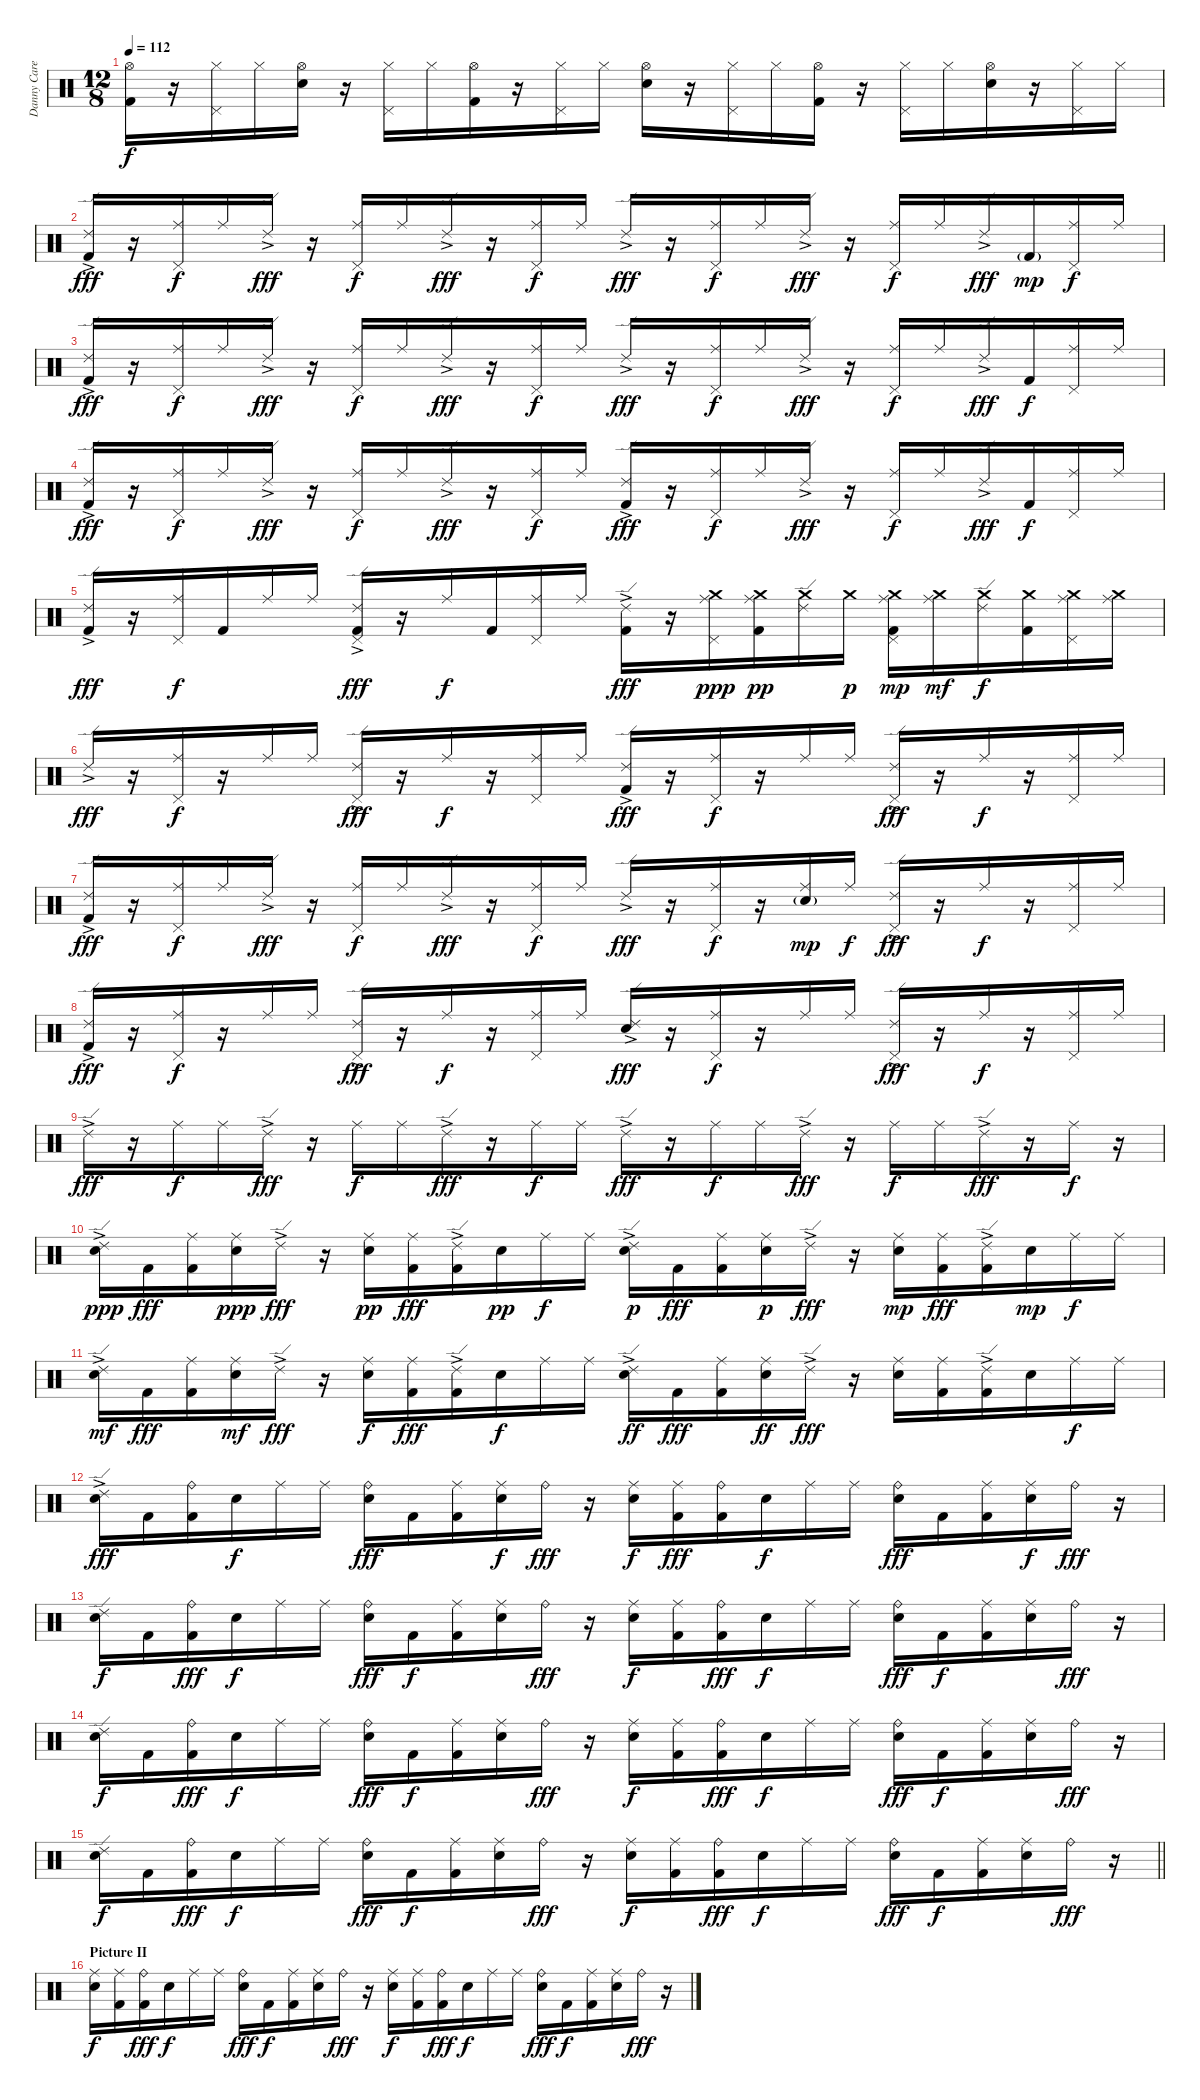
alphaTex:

\track ("Danny Carey" "Danny Care") {instrument percussion}
\staff {score}
\articulation defaults
\ts (12 8)
\tempo 112
\clef neutral
\ks c
("Hi-Hat (open)" "Kick (hit) 2").16{dy f} r.16 ("Hi-Hat (closed)" "Pedal Hi-Hat (hit)").16 "Hi-Hat (closed)".16 ("Hi-Hat (open)" "Electric Snare (hit)").16 r.16 ("Hi-Hat (closed)" "Pedal Hi-Hat (hit)").16 "Hi-Hat (closed)".16 ("Hi-Hat (open)" "Kick (hit) 2").16 r.16 ("Hi-Hat (closed)" "Pedal Hi-Hat (hit)").16 "Hi-Hat (closed)".16 ("Hi-Hat (open)" "Electric Snare (hit)").16 r.16 ("Hi-Hat (closed)" "Pedal Hi-Hat (hit)").16 "Hi-Hat (closed)".16 ("Hi-Hat (open)" "Kick (hit) 2").16 r.16 ("Hi-Hat (closed)" "Pedal Hi-Hat (hit)").16 "Hi-Hat (closed)".16 ("Hi-Hat (open)" "Electric Snare (hit)").16 r.16 ("Hi-Hat (closed)" "Pedal Hi-Hat (hit)").16 "Hi-Hat (closed)".16 |
("Ride (edge) 2"{ac} "Kick (hit) 2").16{dy fff} r.16 ("Ride (middle)" "Pedal Hi-Hat (hit)").16{dy f} "Ride (middle)".16 "Ride (edge) 2"{ac}.16{dy fff} r.16 ("Ride (middle)" "Pedal Hi-Hat (hit)").16{dy f} "Ride (middle)".16 "Ride (edge) 2"{ac}.16{dy fff} r.16 ("Ride (middle)" "Pedal Hi-Hat (hit)").16{dy f} "Ride (middle)".16 "Ride (edge) 2"{ac}.16{dy fff} r.16 ("Ride (middle)" "Pedal Hi-Hat (hit)").16{dy f} "Ride (middle)".16 "Ride (edge) 2"{ac}.16{dy fff} r.16 ("Ride (middle)" "Pedal Hi-Hat (hit)").16{dy f} "Ride (middle)".16 "Ride (edge) 2"{ac}.16{dy fff} "Kick (hit) 2"{g}.16{dy mp} ("Ride (middle)" "Pedal Hi-Hat (hit)").16{dy f} "Ride (middle)".16 |
("Ride (edge) 2"{ac} "Kick (hit) 2").16{dy fff} r.16 ("Ride (middle)" "Pedal Hi-Hat (hit)").16{dy f} "Ride (middle)".16 "Ride (edge) 2"{ac}.16{dy fff} r.16 ("Ride (middle)" "Pedal Hi-Hat (hit)").16{dy f} "Ride (middle)".16 "Ride (edge) 2"{ac}.16{dy fff} r.16 ("Ride (middle)" "Pedal Hi-Hat (hit)").16{dy f} "Ride (middle)".16 "Ride (edge) 2"{ac}.16{dy fff} r.16 ("Ride (middle)" "Pedal Hi-Hat (hit)").16{dy f} "Ride (middle)".16 "Ride (edge) 2"{ac}.16{dy fff} r.16 ("Ride (middle)" "Pedal Hi-Hat (hit)").16{dy f} "Ride (middle)".16 "Ride (edge) 2"{ac}.16{dy fff} "Kick (hit) 2".16{dy f} ("Ride (middle)" "Pedal Hi-Hat (hit)").16 "Ride (middle)".16 |
("Ride (edge) 2"{ac} "Kick (hit) 2").16{dy fff} r.16 ("Ride (middle)" "Pedal Hi-Hat (hit)").16{dy f} "Ride (middle)".16 "Ride (edge) 2"{ac}.16{dy fff} r.16 ("Ride (middle)" "Pedal Hi-Hat (hit)").16{dy f} "Ride (middle)".16 "Ride (edge) 2"{ac}.16{dy fff} r.16 ("Ride (middle)" "Pedal Hi-Hat (hit)").16{dy f} "Ride (middle)".16 ("Ride (edge) 2"{ac} "Kick (hit) 2").16{dy fff} r.16 ("Ride (middle)" "Pedal Hi-Hat (hit)").16{dy f} "Ride (middle)".16 "Ride (edge) 2"{ac}.16{dy fff} r.16 ("Ride (middle)" "Pedal Hi-Hat (hit)").16{dy f} "Ride (middle)".16 "Ride (edge) 2"{ac}.16{dy fff} "Kick (hit) 2".16{dy f} ("Ride (middle)" "Pedal Hi-Hat (hit)").16 "Ride (middle)".16 |
("Ride (edge) 2"{ac} "Kick (hit) 2").16{dy fff} r.16 ("Ride (middle)" "Pedal Hi-Hat (hit)").16{dy f} "Kick (hit) 2".16 "Ride (middle)".16 "Ride (middle)".16 ("Ride (edge) 2"{ac} "Kick (hit) 2" "Pedal Hi-Hat (hit)").16{dy fff} r.16 "Ride (middle)".16{dy f} "Kick (hit) 2".16 ("Ride (middle)" "Pedal Hi-Hat (hit)").16 "Ride (middle)".16 ("Ride (edge) 2"{ac} "Kick (hit) 2").16{dy fff} r.16 ("Crash medium (hit)" "Ride (middle)" "Pedal Hi-Hat (hit)").16{dy ppp} ("Crash medium (hit)" "Ride (middle)" "Kick (hit) 2").16{dy pp} ("Crash medium (hit)" "Ride (edge) 2").16 "Crash medium (hit)".16{dy p} ("Crash medium (hit)" "Ride (middle)" "Kick (hit) 2" "Pedal Hi-Hat (hit)").16{dy mp} ("Crash medium (hit)" "Ride (middle)").16{dy mf} ("Crash medium (hit)" "Ride (edge) 2").16{dy f} ("Crash medium (hit)" "Kick (hit) 2").16 ("Crash medium (hit)" "Ride (middle)" "Pedal Hi-Hat (hit)").16 ("Crash medium (hit)" "Ride (middle)").16 |
"Ride (edge) 2"{ac}.16{dy fff} r.16 ("Ride (middle)" "Pedal Hi-Hat (hit)").16{dy f} r.16 "Ride (middle)".16 "Ride (middle)".16 ("Ride (edge) 2"{ac} "Pedal Hi-Hat (hit)").16{dy fff} r.16 "Ride (middle)".16{dy f} r.16 ("Ride (middle)" "Pedal Hi-Hat (hit)").16 "Ride (middle)".16 ("Ride (edge) 2"{ac} "Kick (hit) 2").16{dy fff} r.16 ("Ride (middle)" "Pedal Hi-Hat (hit)").16{dy f} r.16 "Ride (middle)".16 "Ride (middle)".16 ("Ride (edge) 2"{ac} "Pedal Hi-Hat (hit)").16{dy fff} r.16 "Ride (middle)".16{dy f} r.16 ("Ride (middle)" "Pedal Hi-Hat (hit)").16 "Ride (middle)".16 |
("Ride (edge) 2"{ac} "Kick (hit) 2").16{dy fff} r.16 ("Ride (middle)" "Pedal Hi-Hat (hit)").16{dy f} "Ride (middle)".16 "Ride (edge) 2"{ac}.16{dy fff} r.16 ("Ride (middle)" "Pedal Hi-Hat (hit)").16{dy f} "Ride (middle)".16 "Ride (edge) 2"{ac}.16{dy fff} r.16 ("Ride (middle)" "Pedal Hi-Hat (hit)").16{dy f} "Ride (middle)".16 "Ride (edge) 2"{ac}.16{dy fff} r.16 ("Ride (middle)" "Pedal Hi-Hat (hit)").16{dy f} r.16 ("Ride (middle)" "Electric Snare (hit)"{g}).16{dy mp} "Ride (middle)".16{dy f} ("Ride (edge) 2"{ac} "Pedal Hi-Hat (hit)").16{dy fff} r.16 "Ride (middle)".16{dy f} r.16 ("Ride (middle)" "Pedal Hi-Hat (hit)").16 "Ride (middle)".16 |
("Ride (edge) 2"{ac} "Kick (hit) 2").16{dy fff} r.16 ("Ride (middle)" "Pedal Hi-Hat (hit)").16{dy f} r.16 "Ride (middle)".16 "Ride (middle)".16 ("Ride (edge) 2"{ac} "Pedal Hi-Hat (hit)").16{dy fff} r.16 "Ride (middle)".16{dy f} r.16 ("Ride (middle)" "Pedal Hi-Hat (hit)").16 "Ride (middle)".16 ("Ride (edge) 2"{ac} "Electric Snare (hit)").16{dy fff} r.16 ("Ride (middle)" "Pedal Hi-Hat (hit)").16{dy f} r.16 "Ride (middle)".16 "Ride (middle)".16 ("Ride (edge) 2"{ac} "Pedal Hi-Hat (hit)").16{dy fff} r.16 "Ride (middle)".16{dy f} r.16 ("Ride (middle)" "Pedal Hi-Hat (hit)").16 "Ride (middle)".16 |
"Ride (edge) 2"{ac}.16{dy fff} r.16 "Ride (middle)".16{dy f} "Ride (middle)".16 "Ride (edge) 2"{ac}.16{dy fff} r.16 "Ride (middle)".16{dy f} "Ride (middle)".16 "Ride (edge) 2"{ac}.16{dy fff} r.16 "Ride (middle)".16{dy f} "Ride (middle)".16 "Ride (edge) 2"{ac}.16{dy fff} r.16 "Ride (middle)".16{dy f} "Ride (middle)".16 "Ride (edge) 2"{ac}.16{dy fff} r.16 "Ride (middle)".16{dy f} "Ride (middle)".16 "Ride (edge) 2"{ac}.16{dy fff} r.16 "Ride (middle)".16{dy f} r.16 |
("Ride (edge) 2"{ac} "Electric Snare (hit)").16{dy ppp} "Kick (hit) 2".16{dy fff} ("Ride (middle)" "Kick (hit) 2").16 ("Ride (middle)" "Electric Snare (hit)").16{dy ppp} "Ride (edge) 2"{ac}.16{dy fff} r.16 ("Ride (middle)" "Electric Snare (hit)").16{dy pp} ("Ride (middle)" "Kick (hit) 2").16{dy fff} ("Ride (edge) 2"{ac} "Kick (hit) 2").16 "Electric Snare (hit)".16{dy pp} "Ride (middle)".16{dy f} "Ride (middle)".16 ("Ride (edge) 2"{ac} "Electric Snare (hit)").16{dy p} "Kick (hit) 2".16{dy fff} ("Ride (middle)" "Kick (hit) 2").16 ("Ride (middle)" "Electric Snare (hit)").16{dy p} "Ride (edge) 2"{ac}.16{dy fff} r.16 ("Ride (middle)" "Electric Snare (hit)").16{dy mp} ("Ride (middle)" "Kick (hit) 2").16{dy fff} ("Ride (edge) 2"{ac} "Kick (hit) 2").16 "Electric Snare (hit)".16{dy mp} "Ride (middle)".16{dy f} "Ride (middle)".16 |
("Ride (edge) 2"{ac} "Electric Snare (hit)").16{dy mf} "Kick (hit) 2".16{dy fff} ("Ride (middle)" "Kick (hit) 2").16 ("Ride (middle)" "Electric Snare (hit)").16{dy mf} "Ride (edge) 2"{ac}.16{dy fff} r.16 ("Ride (middle)" "Electric Snare (hit)").16{dy f} ("Ride (middle)" "Kick (hit) 2").16{dy fff} ("Ride (edge) 2"{ac} "Kick (hit) 2").16 "Electric Snare (hit)".16{dy f} "Ride (middle)".16 "Ride (middle)".16 ("Ride (edge) 2"{ac} "Electric Snare (hit)").16{dy ff} "Kick (hit) 2".16{dy fff} ("Ride (middle)" "Kick (hit) 2").16 ("Ride (middle)" "Electric Snare (hit)").16{dy ff} "Ride (edge) 2"{ac}.16{dy fff} r.16 ("Ride (middle)" "Electric Snare (hit)").16 ("Ride (middle)" "Kick (hit) 2").16 ("Ride (edge) 2"{ac} "Kick (hit) 2").16 "Electric Snare (hit)".16 "Ride (middle)".16{dy f} "Ride (middle)".16 |
("Ride (edge) 2"{ac} "Electric Snare (hit)").16{dy fff} "Kick (hit) 2".16 ("Ride (bell)" "Kick (hit) 2").16 "Electric Snare (hit)".16{dy f} "Ride (middle)".16 "Ride (middle)".16 ("Ride (bell)" "Electric Snare (hit)").16{dy fff} "Kick (hit) 2".16 ("Ride (middle)" "Kick (hit) 2").16 ("Ride (middle)" "Electric Snare (hit)").16{dy f} "Ride (bell)".16{dy fff} r.16 ("Ride (middle)" "Electric Snare (hit)").16{dy f} ("Ride (middle)" "Kick (hit) 2").16{dy fff} ("Ride (bell)" "Kick (hit) 2").16 "Electric Snare (hit)".16{dy f} "Ride (middle)".16 "Ride (middle)".16 ("Ride (bell)" "Electric Snare (hit)").16{dy fff} "Kick (hit) 2".16 ("Ride (middle)" "Kick (hit) 2").16 ("Ride (middle)" "Electric Snare (hit)").16{dy f} "Ride (bell)".16{dy fff} r.16 |
("Ride (edge) 2" "Electric Snare (hit)").16{dy f} "Kick (hit) 2".16 ("Ride (bell)" "Kick (hit) 2").16{dy fff} "Electric Snare (hit)".16{dy f} "Ride (middle)".16 "Ride (middle)".16 ("Ride (bell)" "Electric Snare (hit)").16{dy fff} "Kick (hit) 2".16{dy f} ("Ride (middle)" "Kick (hit) 2").16 ("Ride (middle)" "Electric Snare (hit)").16 "Ride (bell)".16{dy fff} r.16 ("Ride (middle)" "Electric Snare (hit)").16{dy f} ("Ride (middle)" "Kick (hit) 2").16 ("Ride (bell)" "Kick (hit) 2").16{dy fff} "Electric Snare (hit)".16{dy f} "Ride (middle)".16 "Ride (middle)".16 ("Ride (bell)" "Electric Snare (hit)").16{dy fff} "Kick (hit) 2".16{dy f} ("Ride (middle)" "Kick (hit) 2").16 ("Ride (middle)" "Electric Snare (hit)").16 "Ride (bell)".16{dy fff} r.16 |
("Ride (edge) 2" "Electric Snare (hit)").16{dy f} "Kick (hit) 2".16 ("Ride (bell)" "Kick (hit) 2").16{dy fff} "Electric Snare (hit)".16{dy f} "Ride (middle)".16 "Ride (middle)".16 ("Ride (bell)" "Electric Snare (hit)").16{dy fff} "Kick (hit) 2".16{dy f} ("Ride (middle)" "Kick (hit) 2").16 ("Ride (middle)" "Electric Snare (hit)").16 "Ride (bell)".16{dy fff} r.16 ("Ride (middle)" "Electric Snare (hit)").16{dy f} ("Ride (middle)" "Kick (hit) 2").16 ("Ride (bell)" "Kick (hit) 2").16{dy fff} "Electric Snare (hit)".16{dy f} "Ride (middle)".16 "Ride (middle)".16 ("Ride (bell)" "Electric Snare (hit)").16{dy fff} "Kick (hit) 2".16{dy f} ("Ride (middle)" "Kick (hit) 2").16 ("Ride (middle)" "Electric Snare (hit)").16 "Ride (bell)".16{dy fff} r.16 |
\barLineRight lightlight
("Ride (edge) 2" "Electric Snare (hit)").16{dy f} "Kick (hit) 2".16 ("Ride (bell)" "Kick (hit) 2").16{dy fff} "Electric Snare (hit)".16{dy f} "Ride (middle)".16 "Ride (middle)".16 ("Ride (bell)" "Electric Snare (hit)").16{dy fff} "Kick (hit) 2".16{dy f} ("Ride (middle)" "Kick (hit) 2").16 ("Ride (middle)" "Electric Snare (hit)").16 "Ride (bell)".16{dy fff} r.16 ("Ride (middle)" "Electric Snare (hit)").16{dy f} ("Ride (middle)" "Kick (hit) 2").16 ("Ride (bell)" "Kick (hit) 2").16{dy fff} "Electric Snare (hit)".16{dy f} "Ride (middle)".16 "Ride (middle)".16 ("Ride (bell)" "Electric Snare (hit)").16{dy fff} "Kick (hit) 2".16{dy f} ("Ride (middle)" "Kick (hit) 2").16 ("Ride (middle)" "Electric Snare (hit)").16 "Ride (bell)".16{dy fff} r.16 |
\section ("" "Picture II")
("Ride (middle)" "Electric Snare (hit)").16{dy f} ("Ride (middle)" "Kick (hit) 2").16 ("Ride (bell)" "Kick (hit) 2").16{dy fff} "Electric Snare (hit)".16{dy f} "Ride (middle)".16 "Ride (middle)".16 ("Ride (bell)" "Electric Snare (hit)").16{dy fff} "Kick (hit) 2".16{dy f} ("Ride (middle)" "Kick (hit) 2").16 ("Ride (middle)" "Electric Snare (hit)").16 "Ride (bell)".16{dy fff} r.16 ("Ride (middle)" "Electric Snare (hit)").16{dy f} ("Ride (middle)" "Kick (hit) 2").16 ("Ride (bell)" "Kick (hit) 2").16{dy fff} "Electric Snare (hit)".16{dy f} "Ride (middle)".16 "Ride (middle)".16 ("Ride (bell)" "Electric Snare (hit)").16{dy fff} "Kick (hit) 2".16{dy f} ("Ride (middle)" "Kick (hit) 2").16 ("Ride (middle)" "Electric Snare (hit)").16 "Ride (bell)".16{dy fff} r.16
